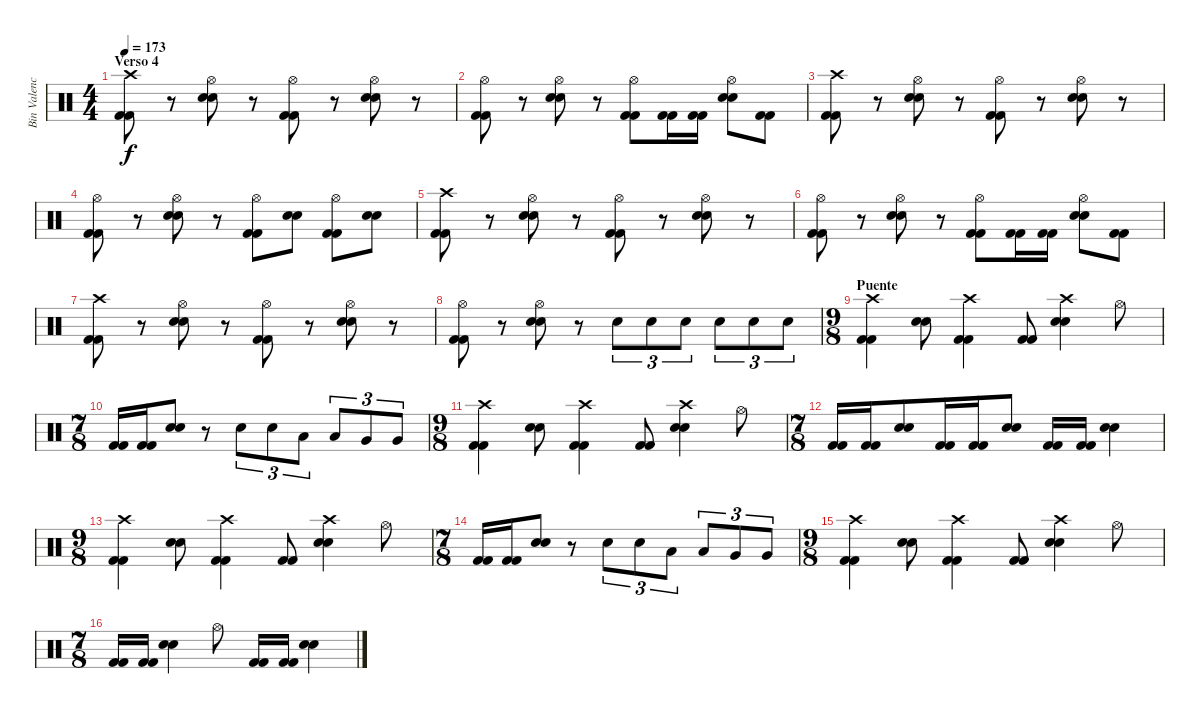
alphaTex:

\track ("Bin Valencia (Bateria)" "Bin Valenc") {instrument percussion}
\staff {score}
\articulation defaults
\ts (4 4)
\section ("" "Verso 4")
\tempo 173
\clef neutral
\ks c
("Crash high (hit)" "Kick (hit) 2" "Kick (hit) 2").8{dy f} r.8 ("Hi-Hat (open)" "Snare (hit) 2" "Snare (hit) 2").8 r.8 ("Hi-Hat (open)" "Kick (hit) 2" "Kick (hit) 2").8 r.8 ("Hi-Hat (open)" "Snare (hit) 2" "Snare (hit) 2").8 r.8 |
("Hi-Hat (open)" "Kick (hit) 2" "Kick (hit) 2").8 r.8 ("Hi-Hat (open)" "Snare (hit) 2" "Snare (hit) 2").8 r.8 ("Hi-Hat (open)" "Kick (hit) 2" "Kick (hit) 2").8 ("Kick (hit) 2" "Kick (hit) 2").16 ("Kick (hit) 2" "Kick (hit) 2").16 ("Hi-Hat (open)" "Snare (hit) 2" "Snare (hit) 2").8 ("Kick (hit) 2" "Kick (hit) 2").8 |
("Crash high (hit)" "Kick (hit) 2" "Kick (hit) 2").8 r.8 ("Hi-Hat (open)" "Snare (hit) 2" "Snare (hit) 2").8 r.8 ("Hi-Hat (open)" "Kick (hit) 2" "Kick (hit) 2").8 r.8 ("Hi-Hat (open)" "Snare (hit) 2" "Snare (hit) 2").8 r.8 |
("Hi-Hat (open)" "Kick (hit) 2" "Kick (hit) 2").8 r.8 ("Hi-Hat (open)" "Snare (hit) 2" "Snare (hit) 2").8 r.8 ("Hi-Hat (open)" "Kick (hit) 2" "Kick (hit) 2").8 ("Snare (hit) 2" "Snare (hit) 2").8 ("Hi-Hat (open)" "Kick (hit) 2" "Kick (hit) 2").8 ("Snare (hit) 2" "Snare (hit) 2").8 |
("Crash high (hit)" "Kick (hit) 2" "Kick (hit) 2").8 r.8 ("Hi-Hat (open)" "Snare (hit) 2" "Snare (hit) 2").8 r.8 ("Hi-Hat (open)" "Kick (hit) 2" "Kick (hit) 2").8 r.8 ("Hi-Hat (open)" "Snare (hit) 2" "Snare (hit) 2").8 r.8 |
("Hi-Hat (open)" "Kick (hit) 2" "Kick (hit) 2").8 r.8 ("Hi-Hat (open)" "Snare (hit) 2" "Snare (hit) 2").8 r.8 ("Hi-Hat (open)" "Kick (hit) 2" "Kick (hit) 2").8 ("Kick (hit) 2" "Kick (hit) 2").16 ("Kick (hit) 2" "Kick (hit) 2").16 ("Hi-Hat (open)" "Snare (hit) 2" "Snare (hit) 2").8 ("Kick (hit) 2" "Kick (hit) 2").8 |
("Crash high (hit)" "Kick (hit) 2" "Kick (hit) 2").8 r.8 ("Hi-Hat (open)" "Snare (hit) 2" "Snare (hit) 2").8 r.8 ("Hi-Hat (open)" "Kick (hit) 2" "Kick (hit) 2").8 r.8 ("Hi-Hat (open)" "Snare (hit) 2" "Snare (hit) 2").8 r.8 |
("Hi-Hat (open)" "Kick (hit) 2" "Kick (hit) 2").8 r.8 ("Hi-Hat (open)" "Snare (hit) 2" "Snare (hit) 2").8 r.8 "Snare (hit) 2".8{tu (3 2)} "Snare (hit) 2".8{tu (3 2)} "Snare (hit) 2".8{tu (3 2)} "Snare (hit) 2".8{tu (3 2)} "Snare (hit) 2".8{tu (3 2)} "Snare (hit) 2".8{tu (3 2)} |
\ts (9 8)
\section ("" "Puente")
("Crash high (hit)" "Kick (hit) 2" "Kick (hit) 2").4 ("Snare (hit) 2" "Snare (hit) 2").8 ("Crash high (hit)" "Kick (hit) 2" "Kick (hit) 2").4 ("Kick (hit) 2" "Kick (hit) 2").8 ("Crash high (hit)" "Snare (hit) 2" "Snare (hit) 2").4 "Hi-Hat (open)".8 |
\ts (7 8)
("Kick (hit) 2" "Kick (hit) 2").16 ("Kick (hit) 2" "Kick (hit) 2").16 ("Snare (hit) 2" "Snare (hit) 2").8 r.8 "Snare (hit) 2".8{tu (3 2)} "Snare (hit) 2".8{tu (3 2)} "Low Tom (hit)".8{tu (3 2)} "Low Tom (hit)".8{tu (3 2)} "Very Low Tom (hit)".8{tu (3 2)} "Very Low Tom (hit)".8{tu (3 2)} |
\ts (9 8)
("Crash high (hit)" "Kick (hit) 2" "Kick (hit) 2").4 ("Snare (hit) 2" "Snare (hit) 2").8 ("Crash high (hit)" "Kick (hit) 2" "Kick (hit) 2").4 ("Kick (hit) 2" "Kick (hit) 2").8 ("Crash high (hit)" "Snare (hit) 2" "Snare (hit) 2").4 "Hi-Hat (open)".8 |
\ts (7 8)
("Kick (hit) 2" "Kick (hit) 2").16 ("Kick (hit) 2" "Kick (hit) 2").16 ("Snare (hit) 2" "Snare (hit) 2").8 ("Kick (hit) 2" "Kick (hit) 2").16 ("Kick (hit) 2" "Kick (hit) 2").16 ("Snare (hit) 2" "Snare (hit) 2").8 ("Kick (hit) 2" "Kick (hit) 2").16 ("Kick (hit) 2" "Kick (hit) 2").16 ("Snare (hit) 2" "Snare (hit) 2").4 |
\ts (9 8)
("Crash high (hit)" "Kick (hit) 2" "Kick (hit) 2").4 ("Snare (hit) 2" "Snare (hit) 2").8 ("Crash high (hit)" "Kick (hit) 2" "Kick (hit) 2").4 ("Kick (hit) 2" "Kick (hit) 2").8 ("Crash high (hit)" "Snare (hit) 2" "Snare (hit) 2").4 "Hi-Hat (open)".8 |
\ts (7 8)
("Kick (hit) 2" "Kick (hit) 2").16 ("Kick (hit) 2" "Kick (hit) 2").16 ("Snare (hit) 2" "Snare (hit) 2").8 r.8 "Snare (hit) 2".8{tu (3 2)} "Snare (hit) 2".8{tu (3 2)} "Low Tom (hit)".8{tu (3 2)} "Low Tom (hit)".8{tu (3 2)} "Very Low Tom (hit)".8{tu (3 2)} "Very Low Tom (hit)".8{tu (3 2)} |
\ts (9 8)
("Crash high (hit)" "Kick (hit) 2" "Kick (hit) 2").4 ("Snare (hit) 2" "Snare (hit) 2").8 ("Crash high (hit)" "Kick (hit) 2" "Kick (hit) 2").4 ("Kick (hit) 2" "Kick (hit) 2").8 ("Crash high (hit)" "Snare (hit) 2" "Snare (hit) 2").4 "Hi-Hat (open)".8 |
\ts (7 8)
("Kick (hit) 2" "Kick (hit) 2").16 ("Kick (hit) 2" "Kick (hit) 2").16 ("Snare (hit) 2" "Snare (hit) 2").4 "Hi-Hat (open)".8 ("Kick (hit) 2" "Kick (hit) 2").16 ("Kick (hit) 2" "Kick (hit) 2").16 ("Snare (hit) 2" "Snare (hit) 2").4
